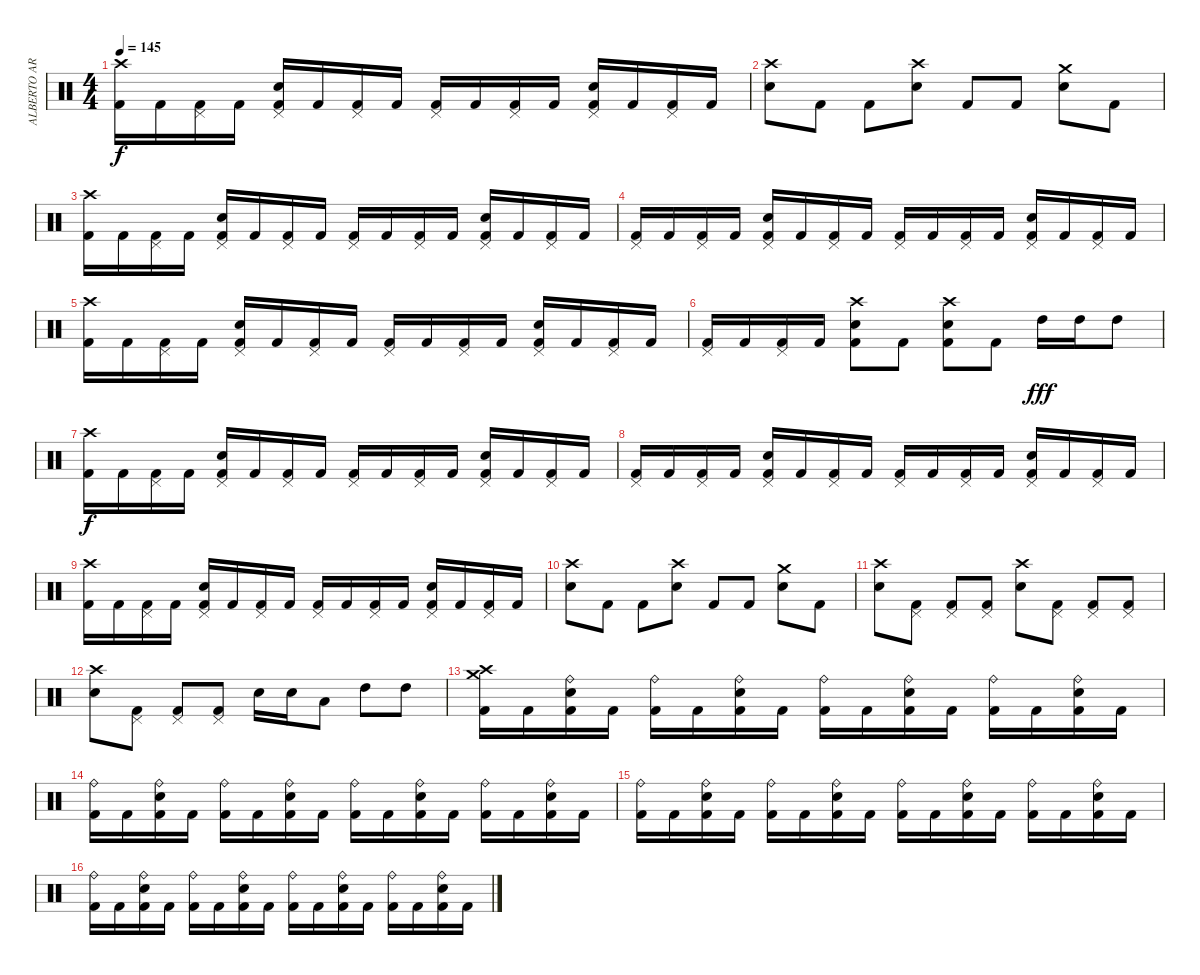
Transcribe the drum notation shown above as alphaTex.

\track ("ALBERTO ARDINES" "ALBERTO AR") {instrument percussion}
\staff {score}
\articulation defaults
\ts (4 4)
\tempo 145
\clef neutral
\ks c
("Crash high (hit)" "Kick (hit) 2").16{dy f} "Kick (hit) 2".16 ("Pedal Hi-Hat (hit)" "Kick (hit) 2").16 "Kick (hit) 2".16 ("Pedal Hi-Hat (hit)" "Electric Snare (hit)" "Kick (hit) 2").16 "Kick (hit) 2".16 ("Pedal Hi-Hat (hit)" "Kick (hit) 2").16 "Kick (hit) 2".16 ("Pedal Hi-Hat (hit)" "Kick (hit) 2").16 "Kick (hit) 2".16 ("Pedal Hi-Hat (hit)" "Kick (hit) 2").16 "Kick (hit) 2".16 ("Pedal Hi-Hat (hit)" "Electric Snare (hit)" "Kick (hit) 2").16 "Kick (hit) 2".16 ("Pedal Hi-Hat (hit)" "Kick (hit) 2").16 "Kick (hit) 2".16 |
("Crash high (hit)" "Electric Snare (hit)").8 "Kick (hit) 2".8 "Kick (hit) 2".8 ("Crash high (hit)" "Electric Snare (hit)").8 "Kick (hit) 2".8 "Kick (hit) 2".8 ("Crash medium (hit)" "Electric Snare (hit)").8 "Kick (hit) 2".8 |
("Crash high (hit)" "Kick (hit) 2").16 "Kick (hit) 2".16 ("Pedal Hi-Hat (hit)" "Kick (hit) 2").16 "Kick (hit) 2".16 ("Pedal Hi-Hat (hit)" "Electric Snare (hit)" "Kick (hit) 2").16 "Kick (hit) 2".16 ("Pedal Hi-Hat (hit)" "Kick (hit) 2").16 "Kick (hit) 2".16 ("Pedal Hi-Hat (hit)" "Kick (hit) 2").16 "Kick (hit) 2".16 ("Pedal Hi-Hat (hit)" "Kick (hit) 2").16 "Kick (hit) 2".16 ("Pedal Hi-Hat (hit)" "Electric Snare (hit)" "Kick (hit) 2").16 "Kick (hit) 2".16 ("Pedal Hi-Hat (hit)" "Kick (hit) 2").16 "Kick (hit) 2".16 |
("Pedal Hi-Hat (hit)" "Kick (hit) 2").16 "Kick (hit) 2".16 ("Pedal Hi-Hat (hit)" "Kick (hit) 2").16 "Kick (hit) 2".16 ("Pedal Hi-Hat (hit)" "Electric Snare (hit)" "Kick (hit) 2").16 "Kick (hit) 2".16 ("Pedal Hi-Hat (hit)" "Kick (hit) 2").16 "Kick (hit) 2".16 ("Pedal Hi-Hat (hit)" "Kick (hit) 2").16 "Kick (hit) 2".16 ("Pedal Hi-Hat (hit)" "Kick (hit) 2").16 "Kick (hit) 2".16 ("Pedal Hi-Hat (hit)" "Electric Snare (hit)" "Kick (hit) 2").16 "Kick (hit) 2".16 ("Pedal Hi-Hat (hit)" "Kick (hit) 2").16 "Kick (hit) 2".16 |
("Crash high (hit)" "Kick (hit) 2").16 "Kick (hit) 2".16 ("Pedal Hi-Hat (hit)" "Kick (hit) 2").16 "Kick (hit) 2".16 ("Pedal Hi-Hat (hit)" "Electric Snare (hit)" "Kick (hit) 2").16 "Kick (hit) 2".16 ("Pedal Hi-Hat (hit)" "Kick (hit) 2").16 "Kick (hit) 2".16 ("Pedal Hi-Hat (hit)" "Kick (hit) 2").16 "Kick (hit) 2".16 ("Pedal Hi-Hat (hit)" "Kick (hit) 2").16 "Kick (hit) 2".16 ("Pedal Hi-Hat (hit)" "Electric Snare (hit)" "Kick (hit) 2").16 "Kick (hit) 2".16 ("Pedal Hi-Hat (hit)" "Kick (hit) 2").16 "Kick (hit) 2".16 |
("Pedal Hi-Hat (hit)" "Kick (hit) 2").16 "Kick (hit) 2".16 ("Pedal Hi-Hat (hit)" "Kick (hit) 2").16 "Kick (hit) 2".16 ("Crash high (hit)" "Electric Snare (hit)" "Kick (hit) 2").8 "Kick (hit) 2".8 ("Crash high (hit)" "Electric Snare (hit)" "Kick (hit) 2").8 "Kick (hit) 2".8 "High Tom (hit)".16{dy fff} "High Tom (hit)".16 "High Tom (hit)".8 |
("Crash high (hit)" "Kick (hit) 2").16{dy f} "Kick (hit) 2".16 ("Pedal Hi-Hat (hit)" "Kick (hit) 2").16 "Kick (hit) 2".16 ("Pedal Hi-Hat (hit)" "Electric Snare (hit)" "Kick (hit) 2").16 "Kick (hit) 2".16 ("Pedal Hi-Hat (hit)" "Kick (hit) 2").16 "Kick (hit) 2".16 ("Pedal Hi-Hat (hit)" "Kick (hit) 2").16 "Kick (hit) 2".16 ("Pedal Hi-Hat (hit)" "Kick (hit) 2").16 "Kick (hit) 2".16 ("Pedal Hi-Hat (hit)" "Electric Snare (hit)" "Kick (hit) 2").16 "Kick (hit) 2".16 ("Pedal Hi-Hat (hit)" "Kick (hit) 2").16 "Kick (hit) 2".16 |
("Pedal Hi-Hat (hit)" "Kick (hit) 2").16 "Kick (hit) 2".16 ("Pedal Hi-Hat (hit)" "Kick (hit) 2").16 "Kick (hit) 2".16 ("Pedal Hi-Hat (hit)" "Electric Snare (hit)" "Kick (hit) 2").16 "Kick (hit) 2".16 ("Pedal Hi-Hat (hit)" "Kick (hit) 2").16 "Kick (hit) 2".16 ("Pedal Hi-Hat (hit)" "Kick (hit) 2").16 "Kick (hit) 2".16 ("Pedal Hi-Hat (hit)" "Kick (hit) 2").16 "Kick (hit) 2".16 ("Pedal Hi-Hat (hit)" "Electric Snare (hit)" "Kick (hit) 2").16 "Kick (hit) 2".16 ("Pedal Hi-Hat (hit)" "Kick (hit) 2").16 "Kick (hit) 2".16 |
("Crash high (hit)" "Kick (hit) 2").16 "Kick (hit) 2".16 ("Pedal Hi-Hat (hit)" "Kick (hit) 2").16 "Kick (hit) 2".16 ("Pedal Hi-Hat (hit)" "Electric Snare (hit)" "Kick (hit) 2").16 "Kick (hit) 2".16 ("Pedal Hi-Hat (hit)" "Kick (hit) 2").16 "Kick (hit) 2".16 ("Pedal Hi-Hat (hit)" "Kick (hit) 2").16 "Kick (hit) 2".16 ("Pedal Hi-Hat (hit)" "Kick (hit) 2").16 "Kick (hit) 2".16 ("Pedal Hi-Hat (hit)" "Electric Snare (hit)" "Kick (hit) 2").16 "Kick (hit) 2".16 ("Pedal Hi-Hat (hit)" "Kick (hit) 2").16 "Kick (hit) 2".16 |
("Crash high (hit)" "Electric Snare (hit)").8 "Kick (hit) 2".8 "Kick (hit) 2".8 ("Crash high (hit)" "Electric Snare (hit)").8 "Kick (hit) 2".8 "Kick (hit) 2".8 ("Crash medium (hit)" "Electric Snare (hit)").8 "Kick (hit) 2".8 |
("Crash high (hit)" "Electric Snare (hit)").8 ("Pedal Hi-Hat (hit)" "Kick (hit) 2").8 ("Pedal Hi-Hat (hit)" "Kick (hit) 2").8 ("Pedal Hi-Hat (hit)" "Kick (hit) 2").8 ("Crash high (hit)" "Electric Snare (hit)").8 ("Pedal Hi-Hat (hit)" "Kick (hit) 2").8 ("Pedal Hi-Hat (hit)" "Kick (hit) 2").8 ("Pedal Hi-Hat (hit)" "Kick (hit) 2").8 |
("Crash high (hit)" "Electric Snare (hit)").8 ("Pedal Hi-Hat (hit)" "Kick (hit) 2").8 ("Pedal Hi-Hat (hit)" "Kick (hit) 2").8 ("Pedal Hi-Hat (hit)" "Kick (hit) 2").8 "Electric Snare (hit)".16 "Electric Snare (hit)".16 "Low Tom (hit)".8 "High Tom (hit)".8 "High Tom (hit)".8 |
("Crash high (hit)" "Crash medium (hit)" "Kick (hit) 2").16 "Kick (hit) 2".16 ("Ride (bell)" "Electric Snare (hit)" "Kick (hit) 2").16 "Kick (hit) 2".16 ("Ride (bell)" "Kick (hit) 2").16 "Kick (hit) 2".16 ("Ride (bell)" "Electric Snare (hit)" "Kick (hit) 2").16 "Kick (hit) 2".16 ("Ride (bell)" "Kick (hit) 2").16 "Kick (hit) 2".16 ("Ride (bell)" "Electric Snare (hit)" "Kick (hit) 2").16 "Kick (hit) 2".16 ("Ride (bell)" "Kick (hit) 2").16 "Kick (hit) 2".16 ("Ride (bell)" "Electric Snare (hit)" "Kick (hit) 2").16 "Kick (hit) 2".16 |
("Ride (bell)" "Kick (hit) 2").16 "Kick (hit) 2".16 ("Ride (bell)" "Electric Snare (hit)" "Kick (hit) 2").16 "Kick (hit) 2".16 ("Ride (bell)" "Kick (hit) 2").16 "Kick (hit) 2".16 ("Ride (bell)" "Electric Snare (hit)" "Kick (hit) 2").16 "Kick (hit) 2".16 ("Ride (bell)" "Kick (hit) 2").16 "Kick (hit) 2".16 ("Ride (bell)" "Electric Snare (hit)" "Kick (hit) 2").16 "Kick (hit) 2".16 ("Ride (bell)" "Kick (hit) 2").16 "Kick (hit) 2".16 ("Ride (bell)" "Electric Snare (hit)" "Kick (hit) 2").16 "Kick (hit) 2".16 |
("Ride (bell)" "Kick (hit) 2").16 "Kick (hit) 2".16 ("Ride (bell)" "Electric Snare (hit)" "Kick (hit) 2").16 "Kick (hit) 2".16 ("Ride (bell)" "Kick (hit) 2").16 "Kick (hit) 2".16 ("Ride (bell)" "Electric Snare (hit)" "Kick (hit) 2").16 "Kick (hit) 2".16 ("Ride (bell)" "Kick (hit) 2").16 "Kick (hit) 2".16 ("Ride (bell)" "Electric Snare (hit)" "Kick (hit) 2").16 "Kick (hit) 2".16 ("Ride (bell)" "Kick (hit) 2").16 "Kick (hit) 2".16 ("Ride (bell)" "Electric Snare (hit)" "Kick (hit) 2").16 "Kick (hit) 2".16 |
("Ride (bell)" "Kick (hit) 2").16 "Kick (hit) 2".16 ("Ride (bell)" "Electric Snare (hit)" "Kick (hit) 2").16 "Kick (hit) 2".16 ("Ride (bell)" "Kick (hit) 2").16 "Kick (hit) 2".16 ("Ride (bell)" "Electric Snare (hit)" "Kick (hit) 2").16 "Kick (hit) 2".16 ("Ride (bell)" "Kick (hit) 2").16 "Kick (hit) 2".16 ("Ride (bell)" "Electric Snare (hit)" "Kick (hit) 2").16 "Kick (hit) 2".16 ("Ride (bell)" "Kick (hit) 2").16 "Kick (hit) 2".16 ("Ride (bell)" "Electric Snare (hit)" "Kick (hit) 2").16 "Kick (hit) 2".16
